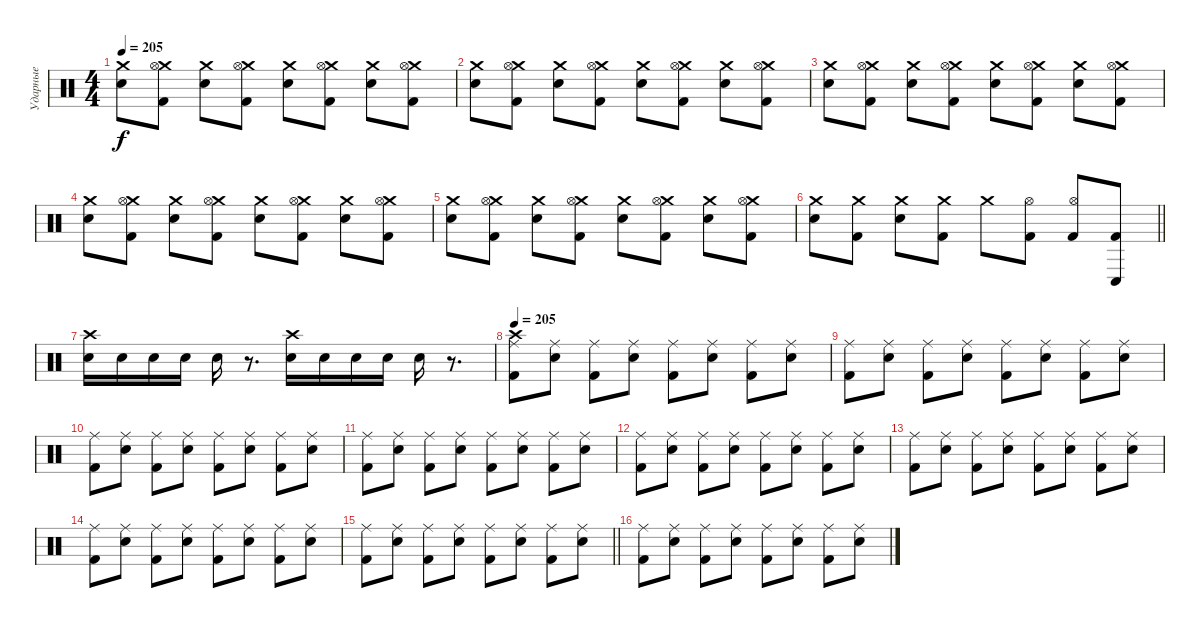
\track ("Ударные" "Ударные") {instrument percussion}
\staff {score}
\articulation defaults
\ts (4 4)
\tempo 205
\clef neutral
\ks c
("Crash medium (hit)" "Electric Snare (hit)").8{dy f} ("Crash medium (hit)" "Hi-Hat (open)" "Kick (hit) 2").8 ("Crash medium (hit)" "Electric Snare (hit)").8 ("Crash medium (hit)" "Hi-Hat (open)" "Kick (hit) 2").8 ("Crash medium (hit)" "Electric Snare (hit)").8 ("Crash medium (hit)" "Hi-Hat (open)" "Kick (hit) 2").8 ("Crash medium (hit)" "Electric Snare (hit)").8 ("Crash medium (hit)" "Hi-Hat (open)" "Kick (hit) 2").8 |
("Crash medium (hit)" "Electric Snare (hit)").8 ("Crash medium (hit)" "Hi-Hat (open)" "Kick (hit) 2").8 ("Crash medium (hit)" "Electric Snare (hit)").8 ("Crash medium (hit)" "Hi-Hat (open)" "Kick (hit) 2").8 ("Crash medium (hit)" "Electric Snare (hit)").8 ("Crash medium (hit)" "Hi-Hat (open)" "Kick (hit) 2").8 ("Crash medium (hit)" "Electric Snare (hit)").8 ("Crash medium (hit)" "Hi-Hat (open)" "Kick (hit) 2").8 |
("Crash medium (hit)" "Electric Snare (hit)").8 ("Crash medium (hit)" "Hi-Hat (open)" "Kick (hit) 2").8 ("Crash medium (hit)" "Electric Snare (hit)").8 ("Crash medium (hit)" "Hi-Hat (open)" "Kick (hit) 2").8 ("Crash medium (hit)" "Electric Snare (hit)").8 ("Crash medium (hit)" "Hi-Hat (open)" "Kick (hit) 2").8 ("Crash medium (hit)" "Electric Snare (hit)").8 ("Crash medium (hit)" "Hi-Hat (open)" "Kick (hit) 2").8 |
("Crash medium (hit)" "Electric Snare (hit)").8 ("Crash medium (hit)" "Hi-Hat (open)" "Kick (hit) 2").8 ("Crash medium (hit)" "Electric Snare (hit)").8 ("Crash medium (hit)" "Hi-Hat (open)" "Kick (hit) 2").8 ("Crash medium (hit)" "Electric Snare (hit)").8 ("Crash medium (hit)" "Hi-Hat (open)" "Kick (hit) 2").8 ("Crash medium (hit)" "Electric Snare (hit)").8 ("Crash medium (hit)" "Hi-Hat (open)" "Kick (hit) 2").8 |
("Crash medium (hit)" "Electric Snare (hit)").8 ("Crash medium (hit)" "Hi-Hat (open)" "Kick (hit) 2").8 ("Crash medium (hit)" "Electric Snare (hit)").8 ("Crash medium (hit)" "Hi-Hat (open)" "Kick (hit) 2").8 ("Crash medium (hit)" "Electric Snare (hit)").8 ("Crash medium (hit)" "Hi-Hat (open)" "Kick (hit) 2").8 ("Crash medium (hit)" "Electric Snare (hit)").8 ("Crash medium (hit)" "Hi-Hat (open)" "Kick (hit) 2").8 |
\barLineRight lightlight
("Crash medium (hit)" "Electric Snare (hit)").8 ("Crash medium (hit)" "Kick (hit) 2").8 ("Crash medium (hit)" "Electric Snare (hit)").8 ("Crash medium (hit)" "Kick (hit) 2").8 "Crash medium (hit)".8 ("Hi-Hat (open)" "Kick (hit) 2").8 ("Hi-Hat (open)" "Kick (hit) 2").8 ("Conga low (hit)" "Kick (hit) 2").8 |
("Crash high (hit)" "Snare (hit) 2").16 "Snare (hit) 2".16 "Snare (hit) 2".16 "Snare (hit) 2".16 "Snare (hit) 2".16 r.8{d} ("Crash high (hit)" "Snare (hit) 2").16 "Snare (hit) 2".16 "Snare (hit) 2".16 "Snare (hit) 2".16 "Snare (hit) 2".16 r.8{d} |
\tempo 205
("Crash high (hit)" "Ride (middle)" "Kick (hit) 2").8 ("Ride (middle)" "Snare (hit) 2").8 ("Ride (middle)" "Kick (hit) 2").8 ("Ride (middle)" "Snare (hit) 2").8 ("Ride (middle)" "Kick (hit) 2").8 ("Ride (middle)" "Snare (hit) 2").8 ("Ride (middle)" "Kick (hit) 2").8 ("Ride (middle)" "Snare (hit) 2").8 |
("Ride (middle)" "Kick (hit) 2").8 ("Ride (middle)" "Snare (hit) 2").8 ("Ride (middle)" "Kick (hit) 2").8 ("Ride (middle)" "Snare (hit) 2").8 ("Ride (middle)" "Kick (hit) 2").8 ("Ride (middle)" "Snare (hit) 2").8 ("Ride (middle)" "Kick (hit) 2").8 ("Ride (middle)" "Snare (hit) 2").8 |
("Ride (middle)" "Kick (hit) 2").8 ("Ride (middle)" "Snare (hit) 2").8 ("Ride (middle)" "Kick (hit) 2").8 ("Ride (middle)" "Snare (hit) 2").8 ("Ride (middle)" "Kick (hit) 2").8 ("Ride (middle)" "Snare (hit) 2").8 ("Ride (middle)" "Kick (hit) 2").8 ("Ride (middle)" "Snare (hit) 2").8 |
("Ride (middle)" "Kick (hit) 2").8 ("Ride (middle)" "Snare (hit) 2").8 ("Ride (middle)" "Kick (hit) 2").8 ("Ride (middle)" "Snare (hit) 2").8 ("Ride (middle)" "Kick (hit) 2").8 ("Ride (middle)" "Snare (hit) 2").8 ("Ride (middle)" "Kick (hit) 2").8 ("Ride (middle)" "Snare (hit) 2").8 |
("Ride (middle)" "Kick (hit) 2").8 ("Ride (middle)" "Snare (hit) 2").8 ("Ride (middle)" "Kick (hit) 2").8 ("Ride (middle)" "Snare (hit) 2").8 ("Ride (middle)" "Kick (hit) 2").8 ("Ride (middle)" "Snare (hit) 2").8 ("Ride (middle)" "Kick (hit) 2").8 ("Ride (middle)" "Snare (hit) 2").8 |
("Ride (middle)" "Kick (hit) 2").8 ("Ride (middle)" "Snare (hit) 2").8 ("Ride (middle)" "Kick (hit) 2").8 ("Ride (middle)" "Snare (hit) 2").8 ("Ride (middle)" "Kick (hit) 2").8 ("Ride (middle)" "Snare (hit) 2").8 ("Ride (middle)" "Kick (hit) 2").8 ("Ride (middle)" "Snare (hit) 2").8 |
("Ride (middle)" "Kick (hit) 2").8 ("Ride (middle)" "Snare (hit) 2").8 ("Ride (middle)" "Kick (hit) 2").8 ("Ride (middle)" "Snare (hit) 2").8 ("Ride (middle)" "Kick (hit) 2").8 ("Ride (middle)" "Snare (hit) 2").8 ("Ride (middle)" "Kick (hit) 2").8 ("Ride (middle)" "Snare (hit) 2").8 |
\barLineRight lightlight
("Ride (middle)" "Kick (hit) 2").8 ("Ride (middle)" "Snare (hit) 2").8 ("Ride (middle)" "Kick (hit) 2").8 ("Ride (middle)" "Snare (hit) 2").8 ("Ride (middle)" "Kick (hit) 2").8 ("Ride (middle)" "Snare (hit) 2").8 ("Ride (middle)" "Kick (hit) 2").8 ("Ride (middle)" "Snare (hit) 2").8 |
("Ride (middle)" "Kick (hit) 2").8 ("Ride (middle)" "Snare (hit) 2").8 ("Ride (middle)" "Kick (hit) 2").8 ("Ride (middle)" "Snare (hit) 2").8 ("Ride (middle)" "Kick (hit) 2").8 ("Ride (middle)" "Snare (hit) 2").8 ("Ride (middle)" "Kick (hit) 2").8 ("Ride (middle)" "Snare (hit) 2").8
